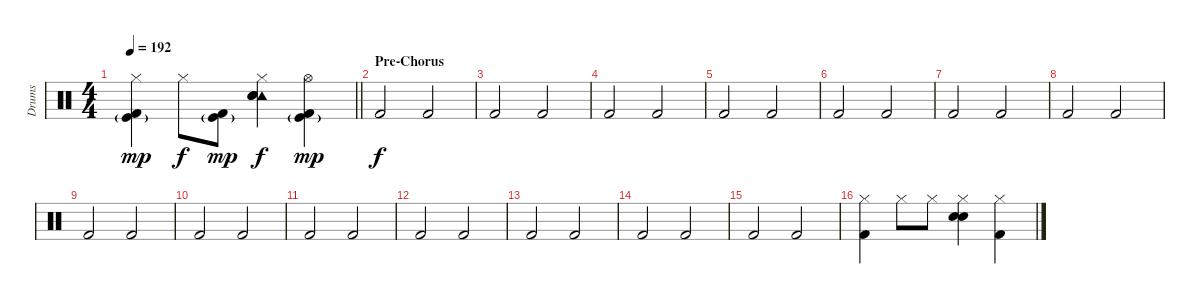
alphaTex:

\track ("Drums" "Drums") {instrument percussion}
\staff {score}
\articulation defaults
\ts (4 4)
\tempo 192
\clef neutral
\barLineRight lightlight
\ks c
("Hi-Hat (closed)" "Kick (hit)"{g} "Kick (hit) 2").4{dy mp} "Hi-Hat (closed)".8{dy f} ("Kick (hit)"{g} "Kick (hit) 2").8{dy mp} ("Hi-Hat (closed)" "Tambourine (hit)" "Electric Snare (hit)" "Hand Clap (hit)").4{dy f} ("Hi-Hat (open)" "Kick (hit)"{g} "Kick (hit) 2").4{dy mp} |
\section ("" "Pre-Chorus")
"Kick (hit) 2".2{dy f} "Kick (hit) 2".2 |
"Kick (hit) 2".2 "Kick (hit) 2".2 |
"Kick (hit) 2".2 "Kick (hit) 2".2 |
"Kick (hit) 2".2 "Kick (hit) 2".2 |
"Kick (hit) 2".2 "Kick (hit) 2".2 |
"Kick (hit) 2".2 "Kick (hit) 2".2 |
"Kick (hit) 2".2 "Kick (hit) 2".2 |
"Kick (hit) 2".2 "Kick (hit) 2".2 |
"Kick (hit) 2".2 "Kick (hit) 2".2 |
"Kick (hit) 2".2 "Kick (hit) 2".2 |
"Kick (hit) 2".2 "Kick (hit) 2".2 |
"Kick (hit) 2".2 "Kick (hit) 2".2 |
"Kick (hit) 2".2 "Kick (hit) 2".2 |
"Kick (hit) 2".2 "Kick (hit) 2".2 |
("Hi-Hat (closed)" "Kick (hit) 2").4 "Hi-Hat (closed)".8 "Hi-Hat (closed)".8 ("Hi-Hat (closed)" "Electric Snare (hit)" "Hand Clap (hit)").4 ("Hi-Hat (closed)" "Kick (hit) 2").4
